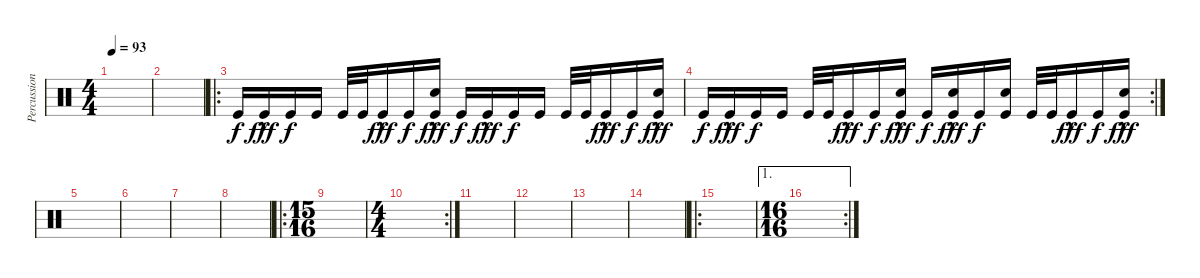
\track ("Percussion" "Percussion") {instrument percussion}
\staff {score}
\articulation defaults
\ts (4 4)
\tempo 93
\clef neutral
\ks c
|
|
\ro "Kick (hit)".16 "Kick (hit)"{hac}.16{dy fff} "Kick (hit)".16{dy f} "Kick (hit)".16 "Kick (hit)".32 "Kick (hit)".32 "Kick (hit)"{hac}.16{dy fff} "Kick (hit)".16{dy f}
("Snare (hit) 2" "Kick (hit)"{hac}).16{dy fff} "Kick (hit)".16{dy f} "Kick (hit)"{hac}.16{dy fff} "Kick (hit)".16{dy f} "Kick (hit)".16 "Kick (hit)".32 "Kick (hit)".32 "Kick (hit)"{hac}.16{dy fff} "Kick (hit)".16{dy f} ("Snare (hit) 2" "Kick (hit)"{hac}).16{dy fff} |
\rc 2 "Kick (hit)".16{dy f} "Kick (hit)"{hac}.16{dy fff} "Kick (hit)".16{dy f} "Kick (hit)".16 "Kick (hit)".32 "Kick (hit)".32 "Kick (hit)"{hac}.16{dy fff} "Kick (hit)".16{dy f}
("Snare (hit) 2" "Kick (hit)"{hac}).16{dy fff} "Kick (hit)".16{dy f} ("Snare (hit) 2" "Kick (hit)"{hac}).16{dy fff} "Kick (hit)".16{dy f} ("Snare (hit) 2" "Kick (hit)").16 "Kick (hit)".32 "Kick (hit)".32 "Kick (hit)"{hac}.16{dy fff} "Kick (hit)".16{dy f} ("Snare (hit) 2" "Kick (hit)"{hac}).16{dy fff} |
|
|
|
|
\ro
\ts (15 16)
|
\rc 2
\ts (4 4)
|
|
|
|
|
\ro
|
\ae 1
\rc 2
\ts (16 16)
